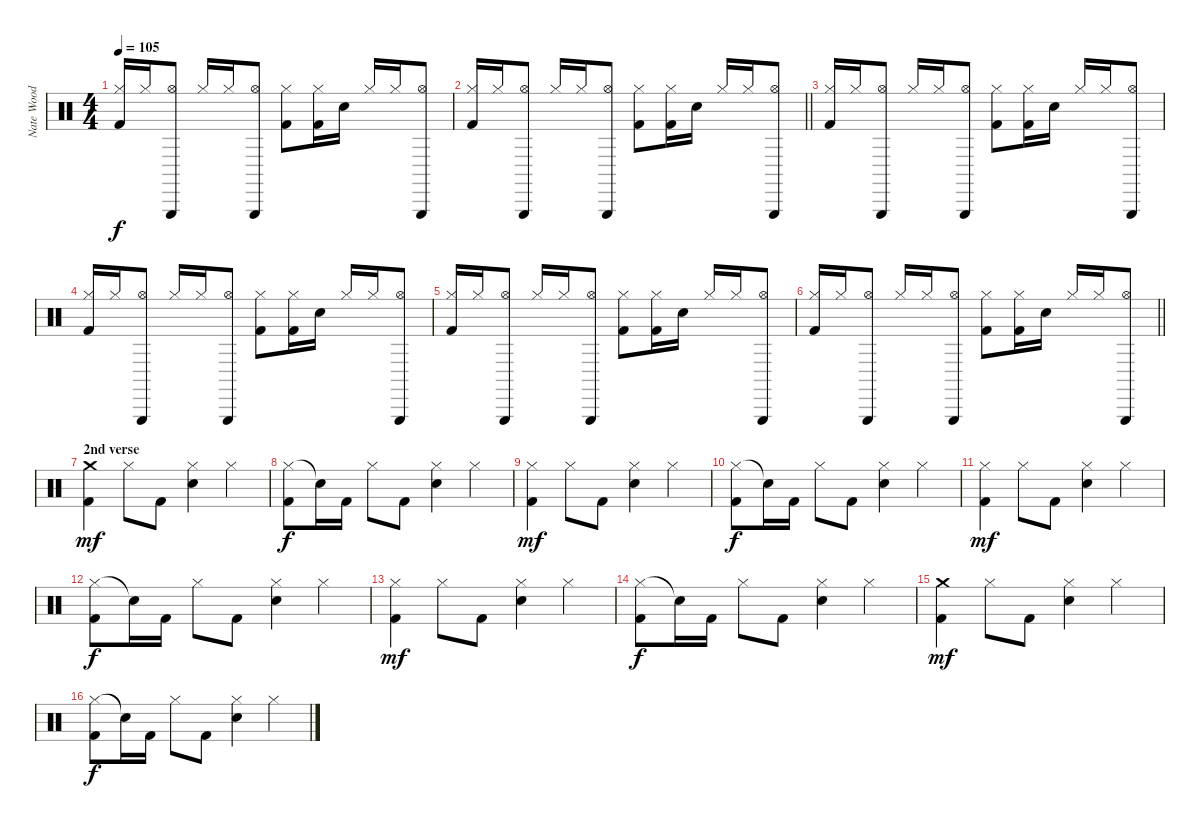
\track ("Nate Wood" "Nate Wood") {instrument percussion}
\staff {score}
\articulation defaults
\ts (4 4)
\tempo 105
\clef neutral
\ks c
("Hi-Hat (closed)" "Kick (hit) 2").16{dy f} "Hi-Hat (closed)".16 ("Triangle (hit)" "Hi-Hat (open)").8 "Hi-Hat (closed)".16 "Hi-Hat (closed)".16 ("Triangle (hit)" "Hi-Hat (open)").8 ("Hi-Hat (closed)" "Kick (hit) 2").8 ("Hi-Hat (closed)" "Kick (hit) 2").16 "Electric Snare (hit)".16 "Hi-Hat (closed)".16 "Hi-Hat (closed)".16 ("Triangle (hit)" "Hi-Hat (open)").8 |
\barLineRight lightlight
("Hi-Hat (closed)" "Kick (hit) 2").16 "Hi-Hat (closed)".16 ("Triangle (hit)" "Hi-Hat (open)").8 "Hi-Hat (closed)".16 "Hi-Hat (closed)".16 ("Triangle (hit)" "Hi-Hat (open)").8 ("Hi-Hat (closed)" "Kick (hit) 2").8 ("Hi-Hat (closed)" "Kick (hit) 2").16 "Electric Snare (hit)".16 "Hi-Hat (closed)".16 "Hi-Hat (closed)".16 ("Triangle (hit)" "Hi-Hat (open)").8 |
("Hi-Hat (closed)" "Kick (hit) 2").16 "Hi-Hat (closed)".16 ("Triangle (hit)" "Hi-Hat (open)").8 "Hi-Hat (closed)".16 "Hi-Hat (closed)".16 ("Triangle (hit)" "Hi-Hat (open)").8 ("Hi-Hat (closed)" "Kick (hit) 2").8 ("Hi-Hat (closed)" "Kick (hit) 2").16 "Electric Snare (hit)".16 "Hi-Hat (closed)".16 "Hi-Hat (closed)".16 ("Triangle (hit)" "Hi-Hat (open)").8 |
("Hi-Hat (closed)" "Kick (hit) 2").16 "Hi-Hat (closed)".16 ("Triangle (hit)" "Hi-Hat (open)").8 "Hi-Hat (closed)".16 "Hi-Hat (closed)".16 ("Triangle (hit)" "Hi-Hat (open)").8 ("Hi-Hat (closed)" "Kick (hit) 2").8 ("Hi-Hat (closed)" "Kick (hit) 2").16 "Electric Snare (hit)".16 "Hi-Hat (closed)".16 "Hi-Hat (closed)".16 ("Triangle (hit)" "Hi-Hat (open)").8 |
("Hi-Hat (closed)" "Kick (hit) 2").16 "Hi-Hat (closed)".16 ("Triangle (hit)" "Hi-Hat (open)").8 "Hi-Hat (closed)".16 "Hi-Hat (closed)".16 ("Triangle (hit)" "Hi-Hat (open)").8 ("Hi-Hat (closed)" "Kick (hit) 2").8 ("Hi-Hat (closed)" "Kick (hit) 2").16 "Electric Snare (hit)".16 "Hi-Hat (closed)".16 "Hi-Hat (closed)".16 ("Triangle (hit)" "Hi-Hat (open)").8 |
\barLineRight lightlight
("Hi-Hat (closed)" "Kick (hit) 2").16 "Hi-Hat (closed)".16 ("Triangle (hit)" "Hi-Hat (open)").8 "Hi-Hat (closed)".16 "Hi-Hat (closed)".16 ("Triangle (hit)" "Hi-Hat (open)").8 ("Hi-Hat (closed)" "Kick (hit) 2").8 ("Hi-Hat (closed)" "Kick (hit) 2").16 "Electric Snare (hit)".16 "Hi-Hat (closed)".16 "Hi-Hat (closed)".16 ("Triangle (hit)" "Hi-Hat (open)").8 |
\section ("" "2nd verse")
("Crash medium (hit)" "Kick (hit) 2").4{dy mf} "Hi-Hat (closed)".8 "Kick (hit) 2".8 ("Electric Snare (hit)" "Hi-Hat (closed)").4 "Hi-Hat (closed)".4 |
("Hi-Hat (closed)" "Kick (hit) 2").8{dy f} "Snare (hit)"{t}.16 "Kick (hit) 2".16 "Hi-Hat (closed)".8 "Kick (hit) 2".8 ("Electric Snare (hit)" "Hi-Hat (closed)").4 "Hi-Hat (closed)".4 |
("Hi-Hat (closed)" "Kick (hit) 2").4{dy mf} "Hi-Hat (closed)".8 "Kick (hit) 2".8 ("Electric Snare (hit)" "Hi-Hat (closed)").4 "Hi-Hat (closed)".4 |
("Hi-Hat (closed)" "Kick (hit) 2").8{dy f} "Snare (hit)"{t}.16 "Kick (hit) 2".16 "Hi-Hat (closed)".8 "Kick (hit) 2".8 ("Electric Snare (hit)" "Hi-Hat (closed)").4 "Hi-Hat (closed)".4 |
("Hi-Hat (closed)" "Kick (hit) 2").4{dy mf} "Hi-Hat (closed)".8 "Kick (hit) 2".8 ("Electric Snare (hit)" "Hi-Hat (closed)").4 "Hi-Hat (closed)".4 |
("Hi-Hat (closed)" "Kick (hit) 2").8{dy f} "Snare (hit)"{t}.16 "Kick (hit) 2".16 "Hi-Hat (closed)".8 "Kick (hit) 2".8 ("Electric Snare (hit)" "Hi-Hat (closed)").4 "Hi-Hat (closed)".4 |
("Hi-Hat (closed)" "Kick (hit) 2").4{dy mf} "Hi-Hat (closed)".8 "Kick (hit) 2".8 ("Electric Snare (hit)" "Hi-Hat (closed)").4 "Hi-Hat (closed)".4 |
("Hi-Hat (closed)" "Kick (hit) 2").8{dy f} "Snare (hit)"{t}.16 "Kick (hit) 2".16 "Hi-Hat (closed)".8 "Kick (hit) 2".8 ("Electric Snare (hit)" "Hi-Hat (closed)").4 "Hi-Hat (closed)".4 |
("Crash medium (hit)" "Kick (hit) 2").4{dy mf} "Hi-Hat (closed)".8 "Kick (hit) 2".8 ("Electric Snare (hit)" "Hi-Hat (closed)").4 "Hi-Hat (closed)".4 |
("Hi-Hat (closed)" "Kick (hit) 2").8{dy f} "Snare (hit)"{t}.16 "Kick (hit) 2".16 "Hi-Hat (closed)".8 "Kick (hit) 2".8 ("Electric Snare (hit)" "Hi-Hat (closed)").4 "Hi-Hat (closed)".4
